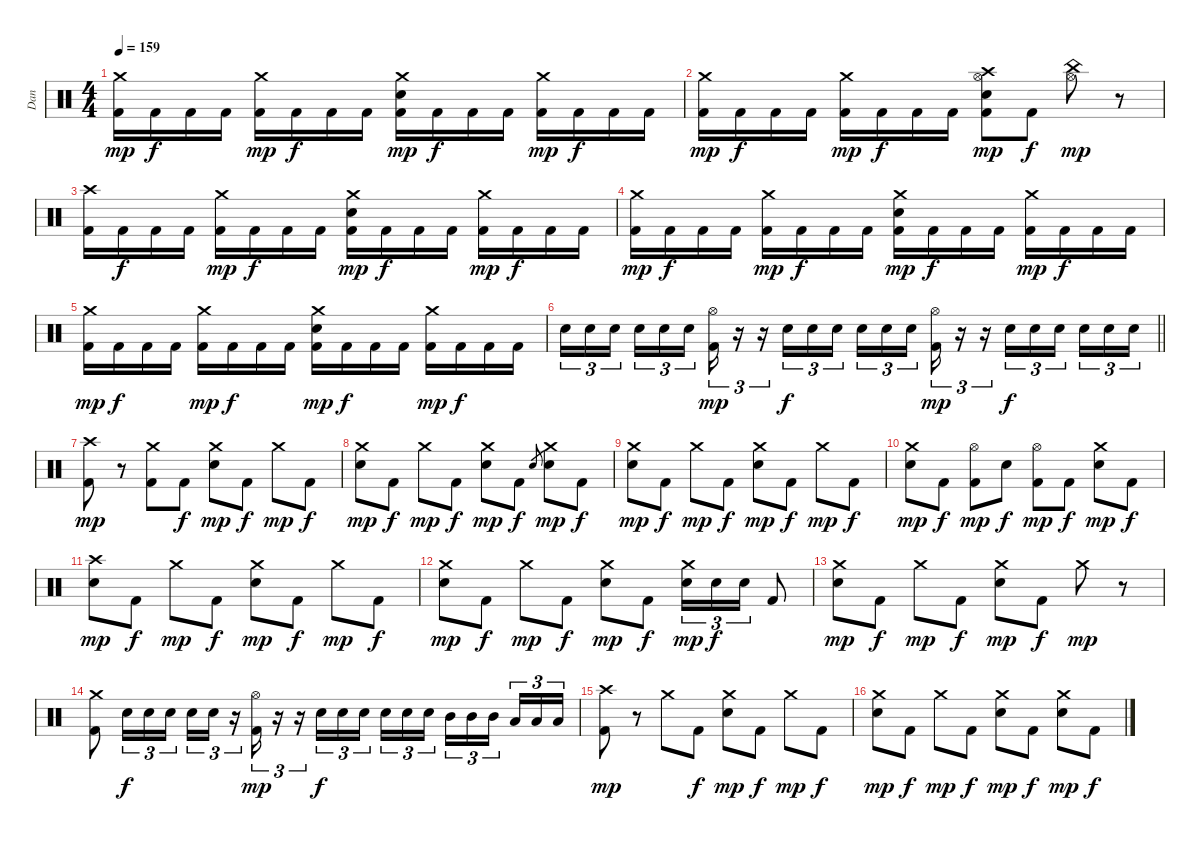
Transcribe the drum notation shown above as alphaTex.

\track ("Dan" "Dan") {instrument percussion}
\staff {score}
\articulation defaults
\ts (4 4)
\tempo 159
\clef neutral
\ks c
("Crash medium (hit)" "Kick (hit) 2").16{dy mp} "Kick (hit) 2".16{dy f} "Kick (hit) 2".16 "Kick (hit) 2".16 ("Crash medium (hit)" "Kick (hit) 2").16{dy mp} "Kick (hit) 2".16{dy f} "Kick (hit) 2".16 "Kick (hit) 2".16 ("Crash medium (hit)" "Snare (hit) 2" "Kick (hit) 2").16{dy mp} "Kick (hit) 2".16{dy f} "Kick (hit) 2".16 "Kick (hit) 2".16 ("Crash medium (hit)" "Kick (hit) 2").16{dy mp} "Kick (hit) 2".16{dy f} "Kick (hit) 2".16 "Kick (hit) 2".16 |
("Crash medium (hit)" "Kick (hit) 2").16{dy mp} "Kick (hit) 2".16{dy f} "Kick (hit) 2".16 "Kick (hit) 2".16 ("Crash medium (hit)" "Kick (hit) 2").16{dy mp} "Kick (hit) 2".16{dy f} "Kick (hit) 2".16 "Kick (hit) 2".16 ("Crash high (hit)" "Hi-Hat (open)" "Snare (hit) 2" "Kick (hit) 2").8{dy mp} "Kick (hit) 2".8{dy f} ("China (hit)" "Hi-Hat (open)").8{dy mp} r.8 |
("Crash high (hit)" "Kick (hit) 2").16 "Kick (hit) 2".16{dy f} "Kick (hit) 2".16 "Kick (hit) 2".16 ("Crash medium (hit)" "Kick (hit) 2").16{dy mp} "Kick (hit) 2".16{dy f} "Kick (hit) 2".16 "Kick (hit) 2".16 ("Crash medium (hit)" "Snare (hit) 2" "Kick (hit) 2").16{dy mp} "Kick (hit) 2".16{dy f} "Kick (hit) 2".16 "Kick (hit) 2".16 ("Crash medium (hit)" "Kick (hit) 2").16{dy mp} "Kick (hit) 2".16{dy f} "Kick (hit) 2".16 "Kick (hit) 2".16 |
("Crash medium (hit)" "Kick (hit) 2").16{dy mp} "Kick (hit) 2".16{dy f} "Kick (hit) 2".16 "Kick (hit) 2".16 ("Crash medium (hit)" "Kick (hit) 2").16{dy mp} "Kick (hit) 2".16{dy f} "Kick (hit) 2".16 "Kick (hit) 2".16 ("Crash medium (hit)" "Snare (hit) 2" "Kick (hit) 2").16{dy mp} "Kick (hit) 2".16{dy f} "Kick (hit) 2".16 "Kick (hit) 2".16 ("Crash medium (hit)" "Kick (hit) 2").16{dy mp} "Kick (hit) 2".16{dy f} "Kick (hit) 2".16 "Kick (hit) 2".16 |
("Crash medium (hit)" "Kick (hit) 2").16{dy mp} "Kick (hit) 2".16{dy f} "Kick (hit) 2".16 "Kick (hit) 2".16 ("Crash medium (hit)" "Kick (hit) 2").16{dy mp} "Kick (hit) 2".16{dy f} "Kick (hit) 2".16 "Kick (hit) 2".16 ("Crash medium (hit)" "Snare (hit) 2" "Kick (hit) 2").16{dy mp} "Kick (hit) 2".16{dy f} "Kick (hit) 2".16 "Kick (hit) 2".16 ("Crash medium (hit)" "Kick (hit) 2").16{dy mp} "Kick (hit) 2".16{dy f} "Kick (hit) 2".16 "Kick (hit) 2".16 |
\barLineRight lightlight "Snare (hit) 2".16{tu (3 2)} "Snare (hit) 2".16{tu (3 2)} "Snare (hit) 2".16{tu (3 2) beam splitsecondary} "Snare (hit) 2".16{tu (3 2)} "Snare (hit) 2".16{tu (3 2)} "Snare (hit) 2".16{tu (3 2)}
("Hi-Hat (open)" "Kick (hit) 2").16{tu (3 2) dy mp} r.16{tu (3 2)} r.16{tu (3 2)} "Snare (hit) 2".16{tu (3 2) dy f} "Snare (hit) 2".16{tu (3 2)} "Snare (hit) 2".16{tu (3 2)} "Snare (hit) 2".16{tu (3 2)} "Snare (hit) 2".16{tu (3 2)} "Snare (hit) 2".16{tu (3 2) beam splitsecondary} ("Hi-Hat (open)" "Kick (hit) 2").16{tu (3 2) dy mp} r.16{tu (3 2)} r.16{tu (3 2)} "Snare (hit) 2".16{tu (3 2) dy f} "Snare (hit) 2".16{tu (3 2)} "Snare (hit) 2".16{tu (3 2) beam splitsecondary} "Snare (hit) 2".16{tu (3 2)} "Snare (hit) 2".16{tu (3 2)} "Snare (hit) 2".16{tu (3 2)} |
("Crash high (hit)" "Kick (hit) 2").8{dy mp} r.8 ("Crash medium (hit)" "Kick (hit) 2").8 "Kick (hit) 2".8{dy f} ("Crash medium (hit)" "Snare (hit) 2").8{dy mp} "Kick (hit) 2".8{dy f} "Crash medium (hit)".8{dy mp} "Kick (hit) 2".8{dy f} |
("Crash medium (hit)" "Snare (hit) 2").8{dy mp} "Kick (hit) 2".8{dy f} "Crash medium (hit)".8{dy mp} "Kick (hit) 2".8{dy f} ("Crash medium (hit)" "Snare (hit) 2").8{dy mp} "Kick (hit) 2".8{dy f} "Snare (hit) 2".8{gr} ("Crash medium (hit)" "Snare (hit) 2").8{dy mp} "Kick (hit) 2".8{dy f} |
("Crash medium (hit)" "Snare (hit) 2").8{dy mp} "Kick (hit) 2".8{dy f} "Crash medium (hit)".8{dy mp} "Kick (hit) 2".8{dy f} ("Crash medium (hit)" "Snare (hit) 2").8{dy mp} "Kick (hit) 2".8{dy f} "Crash medium (hit)".8{dy mp} "Kick (hit) 2".8{dy f} |
("Crash medium (hit)" "Snare (hit) 2").8{dy mp} "Kick (hit) 2".8{dy f} ("Hi-Hat (open)" "Kick (hit) 2").8{dy mp} "Snare (hit) 2".8{dy f} ("Hi-Hat (open)" "Kick (hit) 2").8{dy mp} "Kick (hit) 2".8{dy f} ("Crash medium (hit)" "Snare (hit) 2").8{dy mp} "Kick (hit) 2".8{dy f} |
("Crash high (hit)" "Snare (hit) 2").8{dy mp} "Kick (hit) 2".8{dy f} "Crash medium (hit)".8{dy mp} "Kick (hit) 2".8{dy f} ("Crash medium (hit)" "Snare (hit) 2").8{dy mp} "Kick (hit) 2".8{dy f} "Crash medium (hit)".8{dy mp} "Kick (hit) 2".8{dy f} |
("Crash medium (hit)" "Snare (hit) 2").8{dy mp} "Kick (hit) 2".8{dy f} "Crash medium (hit)".8{dy mp} "Kick (hit) 2".8{dy f} ("Crash medium (hit)" "Snare (hit) 2").8{dy mp} "Kick (hit) 2".8{dy f} ("Crash medium (hit)" "Snare (hit) 2").16{tu (3 2) dy mp} "Snare (hit) 2".16{tu (3 2) dy f} "Snare (hit) 2".16{tu (3 2)} "Kick (hit) 2".8 |
("Crash medium (hit)" "Snare (hit) 2").8{dy mp} "Kick (hit) 2".8{dy f} "Crash medium (hit)".8{dy mp} "Kick (hit) 2".8{dy f} ("Crash medium (hit)" "Snare (hit) 2").8{dy mp} "Kick (hit) 2".8{dy f} "Crash medium (hit)".8{dy mp} r.8 |
("Crash medium (hit)" "Kick (hit) 2").8 "Snare (hit) 2".16{tu (3 2) dy f} "Snare (hit) 2".16{tu (3 2)} "Snare (hit) 2".16{tu (3 2)} "Snare (hit) 2".16{tu (3 2)} "Snare (hit) 2".16{tu (3 2)} r.16{tu (3 2)} ("Hi-Hat (open)" "Kick (hit) 2").16{tu (3 2) dy mp} r.16{tu (3 2)} r.16{tu (3 2)} "Snare (hit) 2".16{tu (3 2) dy f} "Snare (hit) 2".16{tu (3 2)} "Snare (hit) 2".16{tu (3 2) beam splitsecondary} "Snare (hit) 2".16{tu (3 2)} "Snare (hit) 2".16{tu (3 2)} "Snare (hit) 2".16{tu (3 2)} "Mid Tom (hit)".16{tu (3 2)} "Mid Tom (hit)".16{tu (3 2)} "Mid Tom (hit)".16{tu (3 2) beam splitsecondary} "Low Tom (hit)".16{tu (3 2)} "Low Tom (hit)".16{tu (3 2)} "Low Tom (hit)".16{tu (3 2)} |
("Crash high (hit)" "Kick (hit) 2").8{dy mp} r.8 "Crash medium (hit)".8 "Kick (hit) 2".8{dy f} ("Crash medium (hit)" "Snare (hit) 2").8{dy mp} "Kick (hit) 2".8{dy f} "Crash medium (hit)".8{dy mp} "Kick (hit) 2".8{dy f} |
("Crash medium (hit)" "Snare (hit) 2").8{dy mp} "Kick (hit) 2".8{dy f} "Crash medium (hit)".8{dy mp} "Kick (hit) 2".8{dy f} ("Crash medium (hit)" "Snare (hit) 2").8{dy mp} "Kick (hit) 2".8{dy f} ("Crash medium (hit)" "Snare (hit) 2").8{dy mp} "Kick (hit) 2".8{dy f}
